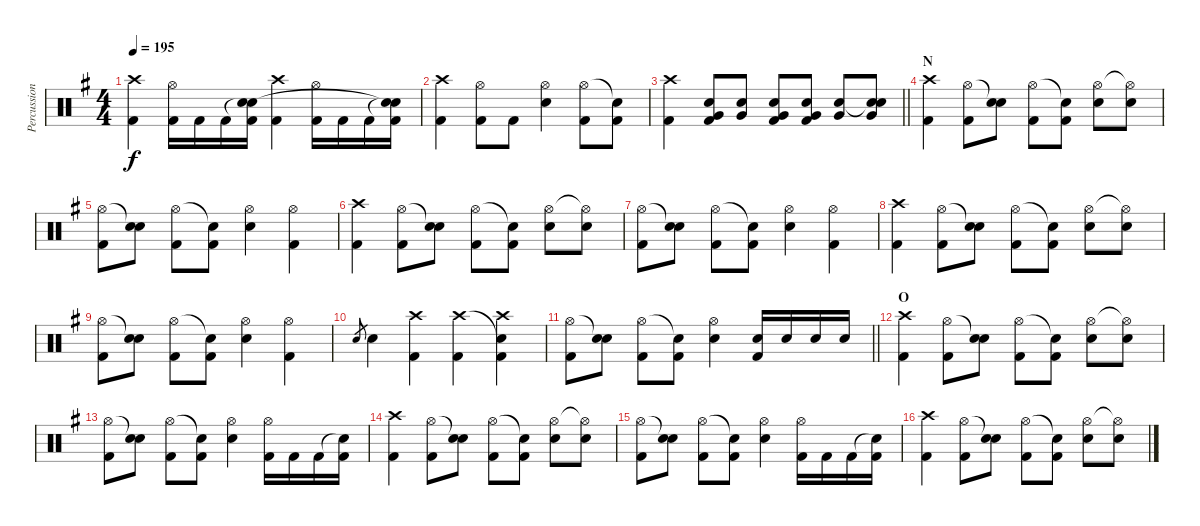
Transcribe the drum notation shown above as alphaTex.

\track ("Percussion" "Percussion") {instrument percussion}
\staff {score}
\articulation defaults
\ts (4 4)
\tempo 195
\clef neutral
\ks g
("Crash high (hit)" "Kick (hit) 2").4{dy f} ("Hi-Hat (open)" "Kick (hit) 2").16 "Kick (hit) 2".16 "Kick (hit) 2".16 ("Snare (hit)"{t} "Kick (hit) 2" "Snare (hit)").16 ("Crash high (hit)" "Kick (hit) 2").4 ("Hi-Hat (open)" "Kick (hit) 2").16 "Kick (hit) 2".16 "Kick (hit) 2".16 ("Snare (hit)"{t} "Kick (hit) 2" "Snare (hit)"{t}).16 |
("Crash high (hit)" "Kick (hit) 2").4 ("Hi-Hat (open)" "Kick (hit) 2").8 "Kick (hit) 2".8 ("Hi-Hat (open)" "Electric Snare (hit)").4 ("Hi-Hat (open)" "Kick (hit) 2").8 ("Snare (hit)"{t} "Kick (hit) 2").8 |
\barLineRight lightlight
("Crash high (hit)" "Kick (hit) 2").4 ("Electric Snare (hit)" "Very Low Tom (hit)" "Kick (hit) 2").8 ("Electric Snare (hit)" "Very Low Tom (hit)").8 ("Electric Snare (hit)" "Very Low Tom (hit)" "Kick (hit) 2").8 ("Electric Snare (hit)" "Very Low Tom (hit)" "Kick (hit) 2").8 ("Electric Snare (hit)" "Very Low Tom (hit)").8 ("Snare (hit)"{t} "Electric Snare (hit)" "Very Low Tom (hit)").8 |
\section ("" "N")
("Crash high (hit)" "Kick (hit) 2").4 ("Hi-Hat (open)" "Kick (hit) 2").8 ("Snare (hit)"{t} "Electric Snare (hit)").8 ("Hi-Hat (open)" "Kick (hit) 2").8 ("Snare (hit)"{t} "Kick (hit) 2").8 ("Hi-Hat (open)" "Electric Snare (hit)").8 ("Hi-Hat (open)"{t} "Electric Snare (hit)").8 |
("Hi-Hat (open)" "Kick (hit) 2").8 ("Snare (hit)"{t} "Electric Snare (hit)").8 ("Hi-Hat (open)" "Kick (hit) 2").8 ("Snare (hit)"{t} "Kick (hit) 2").8 ("Hi-Hat (open)" "Electric Snare (hit)").4 ("Hi-Hat (open)" "Kick (hit) 2").4 |
("Crash high (hit)" "Kick (hit) 2").4 ("Hi-Hat (open)" "Kick (hit) 2").8 ("Snare (hit)"{t} "Electric Snare (hit)").8 ("Hi-Hat (open)" "Kick (hit) 2").8 ("Snare (hit)"{t} "Kick (hit) 2").8 ("Hi-Hat (open)" "Electric Snare (hit)").8 ("Hi-Hat (open)"{t} "Electric Snare (hit)").8 |
("Hi-Hat (open)" "Kick (hit) 2").8 ("Snare (hit)"{t} "Electric Snare (hit)").8 ("Hi-Hat (open)" "Kick (hit) 2").8 ("Snare (hit)"{t} "Kick (hit) 2").8 ("Hi-Hat (open)" "Electric Snare (hit)").4 ("Hi-Hat (open)" "Kick (hit) 2").4 |
("Crash high (hit)" "Kick (hit) 2").4 ("Hi-Hat (open)" "Kick (hit) 2").8 ("Snare (hit)"{t} "Electric Snare (hit)").8 ("Hi-Hat (open)" "Kick (hit) 2").8 ("Snare (hit)"{t} "Kick (hit) 2").8 ("Hi-Hat (open)" "Electric Snare (hit)").8 ("Hi-Hat (open)"{t} "Electric Snare (hit)").8 |
("Hi-Hat (open)" "Kick (hit) 2").8 ("Snare (hit)"{t} "Electric Snare (hit)").8 ("Hi-Hat (open)" "Kick (hit) 2").8 ("Snare (hit)"{t} "Kick (hit) 2").8 ("Hi-Hat (open)" "Electric Snare (hit)").4 ("Hi-Hat (open)" "Kick (hit) 2").4 |
"Electric Snare (hit)".8{gr} "Electric Snare (hit)".4 ("Crash high (hit)" "Kick (hit) 2").4 ("Crash high (hit)" "Kick (hit) 2").4 ("Snare (hit)"{t} "Crash high (hit)" "Kick (hit) 2").4 |
\barLineRight lightlight
("Hi-Hat (open)" "Kick (hit) 2").8 ("Snare (hit)"{t} "Electric Snare (hit)").8 ("Hi-Hat (open)" "Kick (hit) 2").8 ("Snare (hit)"{t} "Kick (hit) 2").8 ("Hi-Hat (open)" "Electric Snare (hit)").4 ("Electric Snare (hit)" "Kick (hit) 2").16 "Electric Snare (hit)".16 "Electric Snare (hit)".16 "Electric Snare (hit)".16 |
\section ("" "O")
("Crash high (hit)" "Kick (hit) 2").4 ("Hi-Hat (open)" "Kick (hit) 2").8 ("Snare (hit)"{t} "Electric Snare (hit)").8 ("Hi-Hat (open)" "Kick (hit) 2").8 ("Snare (hit)"{t} "Kick (hit) 2").8 ("Hi-Hat (open)" "Electric Snare (hit)").8 ("Hi-Hat (open)"{t} "Electric Snare (hit)").8 |
("Hi-Hat (open)" "Kick (hit) 2").8 ("Snare (hit)"{t} "Electric Snare (hit)").8 ("Hi-Hat (open)" "Kick (hit) 2").8 ("Snare (hit)"{t} "Kick (hit) 2").8 ("Hi-Hat (open)" "Electric Snare (hit)").4 ("Hi-Hat (open)" "Kick (hit) 2").16 "Kick (hit) 2".16 "Kick (hit) 2".16 ("Snare (hit)"{t} "Kick (hit) 2").16 |
("Crash high (hit)" "Kick (hit) 2").4 ("Hi-Hat (open)" "Kick (hit) 2").8 ("Snare (hit)"{t} "Electric Snare (hit)").8 ("Hi-Hat (open)" "Kick (hit) 2").8 ("Snare (hit)"{t} "Kick (hit) 2").8 ("Hi-Hat (open)" "Electric Snare (hit)").8 ("Hi-Hat (open)"{t} "Electric Snare (hit)").8 |
("Hi-Hat (open)" "Kick (hit) 2").8 ("Snare (hit)"{t} "Electric Snare (hit)").8 ("Hi-Hat (open)" "Kick (hit) 2").8 ("Snare (hit)"{t} "Kick (hit) 2").8 ("Hi-Hat (open)" "Electric Snare (hit)").4 ("Hi-Hat (open)" "Kick (hit) 2").16 "Kick (hit) 2".16 "Kick (hit) 2".16 ("Snare (hit)"{t} "Kick (hit) 2").16 |
("Crash high (hit)" "Kick (hit) 2").4 ("Hi-Hat (open)" "Kick (hit) 2").8 ("Snare (hit)"{t} "Electric Snare (hit)").8 ("Hi-Hat (open)" "Kick (hit) 2").8 ("Snare (hit)"{t} "Kick (hit) 2").8 ("Hi-Hat (open)" "Electric Snare (hit)").8 ("Hi-Hat (open)"{t} "Electric Snare (hit)").8
